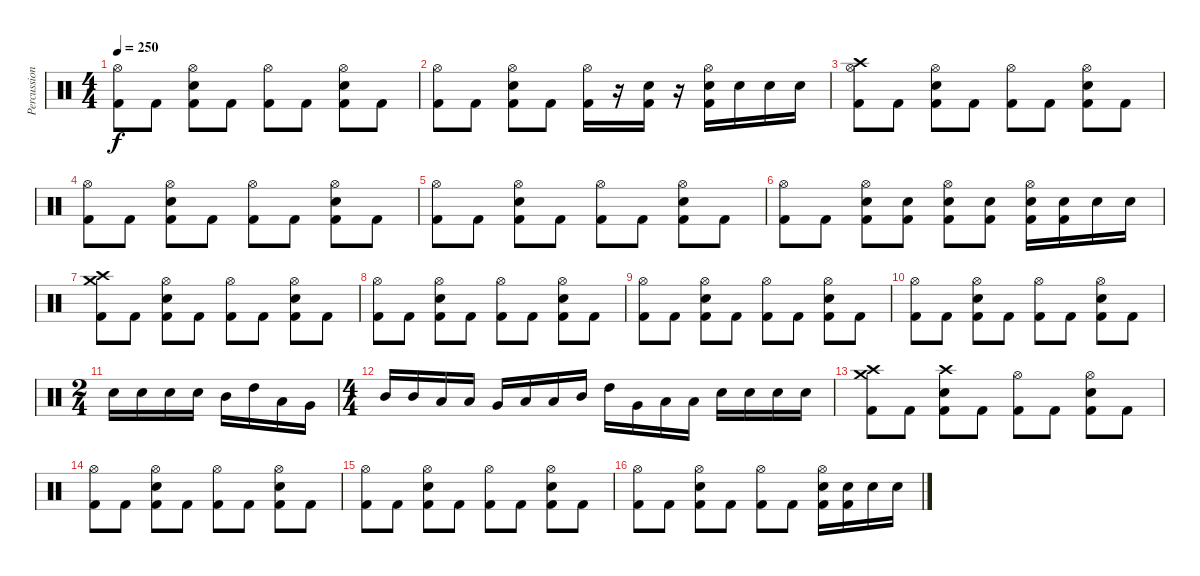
\track ("Percussion" "Percussion") {instrument percussion}
\staff {score}
\articulation defaults
\ts (4 4)
\tempo 250
\clef neutral
\ks c
("Hi-Hat (open)" "Kick (hit) 2").8{dy f} "Kick (hit) 2".8 ("Hi-Hat (open)" "Snare (hit) 2" "Kick (hit) 2").8 "Kick (hit) 2".8 ("Hi-Hat (open)" "Kick (hit) 2").8 "Kick (hit) 2".8 ("Hi-Hat (open)" "Snare (hit) 2" "Kick (hit) 2").8 "Kick (hit) 2".8 |
("Hi-Hat (open)" "Kick (hit) 2").8 "Kick (hit) 2".8 ("Hi-Hat (open)" "Snare (hit) 2" "Kick (hit) 2").8 "Kick (hit) 2".8 ("Hi-Hat (open)" "Kick (hit) 2").16 r.16 ("Snare (hit) 2" "Kick (hit) 2").16 r.16 ("Hi-Hat (open)" "Snare (hit) 2" "Kick (hit) 2").16 "Snare (hit) 2".16 "Snare (hit) 2".16 "Snare (hit) 2".16 |
("Crash high (hit)" "Hi-Hat (open)" "Kick (hit) 2").8 "Kick (hit) 2".8 ("Hi-Hat (open)" "Snare (hit) 2" "Kick (hit) 2").8 "Kick (hit) 2".8 ("Hi-Hat (open)" "Kick (hit) 2").8 "Kick (hit) 2".8 ("Hi-Hat (open)" "Snare (hit) 2" "Kick (hit) 2").8 "Kick (hit) 2".8 |
("Hi-Hat (open)" "Kick (hit) 2").8 "Kick (hit) 2".8 ("Hi-Hat (open)" "Snare (hit) 2" "Kick (hit) 2").8 "Kick (hit) 2".8 ("Hi-Hat (open)" "Kick (hit) 2").8 "Kick (hit) 2".8 ("Hi-Hat (open)" "Snare (hit) 2" "Kick (hit) 2").8 "Kick (hit) 2".8 |
("Hi-Hat (open)" "Kick (hit) 2").8 "Kick (hit) 2".8 ("Hi-Hat (open)" "Snare (hit) 2" "Kick (hit) 2").8 "Kick (hit) 2".8 ("Hi-Hat (open)" "Kick (hit) 2").8 "Kick (hit) 2".8 ("Hi-Hat (open)" "Snare (hit) 2" "Kick (hit) 2").8 "Kick (hit) 2".8 |
("Hi-Hat (open)" "Kick (hit) 2").8 "Kick (hit) 2".8 ("Hi-Hat (open)" "Snare (hit) 2" "Kick (hit) 2").8 ("Snare (hit) 2" "Kick (hit) 2").8 ("Hi-Hat (open)" "Snare (hit) 2" "Kick (hit) 2").8 ("Snare (hit) 2" "Kick (hit) 2").8 ("Hi-Hat (open)" "Snare (hit) 2" "Kick (hit) 2").16 ("Snare (hit) 2" "Kick (hit) 2").16 "Snare (hit) 2".16 "Snare (hit) 2".16 |
("Crash high (hit)" "Crash medium (hit)" "Kick (hit) 2").8 "Kick (hit) 2".8 ("Hi-Hat (open)" "Snare (hit) 2" "Kick (hit) 2").8 "Kick (hit) 2".8 ("Hi-Hat (open)" "Kick (hit) 2").8 "Kick (hit) 2".8 ("Hi-Hat (open)" "Snare (hit) 2" "Kick (hit) 2").8 "Kick (hit) 2".8 |
("Hi-Hat (open)" "Kick (hit) 2").8 "Kick (hit) 2".8 ("Hi-Hat (open)" "Snare (hit) 2" "Kick (hit) 2").8 "Kick (hit) 2".8 ("Hi-Hat (open)" "Kick (hit) 2").8 "Kick (hit) 2".8 ("Hi-Hat (open)" "Snare (hit) 2" "Kick (hit) 2").8 "Kick (hit) 2".8 |
("Hi-Hat (open)" "Kick (hit) 2").8 "Kick (hit) 2".8 ("Hi-Hat (open)" "Snare (hit) 2" "Kick (hit) 2").8 "Kick (hit) 2".8 ("Hi-Hat (open)" "Kick (hit) 2").8 "Kick (hit) 2".8 ("Hi-Hat (open)" "Snare (hit) 2" "Kick (hit) 2").8 "Kick (hit) 2".8 |
("Hi-Hat (open)" "Kick (hit) 2").8 "Kick (hit) 2".8 ("Hi-Hat (open)" "Snare (hit) 2" "Kick (hit) 2").8 "Kick (hit) 2".8 ("Hi-Hat (open)" "Kick (hit) 2").8 "Kick (hit) 2".8 ("Hi-Hat (open)" "Snare (hit) 2" "Kick (hit) 2").8 "Kick (hit) 2".8 |
\ts (2 4)
"Snare (hit) 2".16 "Snare (hit) 2".16 "Snare (hit) 2".16 "Snare (hit) 2".16 "Mid Tom (hit)".16 "High Tom (hit)".16 "Low Floor Tom (hit)".16 "Very Low Tom (hit)".16 |
\ts (4 4)
"Mid Tom (hit)".16 "Mid Tom (hit)".16 "Low Tom (hit)".16 "Low Tom (hit)".16 "Very Low Tom (hit)".16 "Low Floor Tom (hit)".16 "Low Tom (hit)".16 "Mid Tom (hit)".16 "High Tom (hit)".16 "Very Low Tom (hit)".16 "Low Tom (hit)".16 "Low Floor Tom (hit)".16 "Snare (hit) 2".16 "Snare (hit) 2".16 "Snare (hit) 2".16 "Snare (hit) 2".16 |
("Crash high (hit)" "Crash medium (hit)" "Kick (hit) 2").8 "Kick (hit) 2".8 ("Crash high (hit)" "Snare (hit) 2" "Kick (hit) 2").8 "Kick (hit) 2".8 ("Hi-Hat (open)" "Kick (hit) 2").8 "Kick (hit) 2".8 ("Hi-Hat (open)" "Snare (hit) 2" "Kick (hit) 2").8 "Kick (hit) 2".8 |
("Hi-Hat (open)" "Kick (hit) 2").8 "Kick (hit) 2".8 ("Hi-Hat (open)" "Snare (hit) 2" "Kick (hit) 2").8 "Kick (hit) 2".8 ("Hi-Hat (open)" "Kick (hit) 2").8 "Kick (hit) 2".8 ("Hi-Hat (open)" "Snare (hit) 2" "Kick (hit) 2").8 "Kick (hit) 2".8 |
("Hi-Hat (open)" "Kick (hit) 2").8 "Kick (hit) 2".8 ("Hi-Hat (open)" "Snare (hit) 2" "Kick (hit) 2").8 "Kick (hit) 2".8 ("Hi-Hat (open)" "Kick (hit) 2").8 "Kick (hit) 2".8 ("Hi-Hat (open)" "Snare (hit) 2" "Kick (hit) 2").8 "Kick (hit) 2".8 |
("Hi-Hat (open)" "Kick (hit) 2").8 "Kick (hit) 2".8 ("Hi-Hat (open)" "Snare (hit) 2" "Kick (hit) 2").8 "Kick (hit) 2".8 ("Hi-Hat (open)" "Kick (hit) 2").8 "Kick (hit) 2".8 ("Hi-Hat (open)" "Snare (hit) 2" "Kick (hit) 2").16 ("Snare (hit) 2" "Kick (hit) 2").16 "Snare (hit) 2".16 "Snare (hit) 2".16
